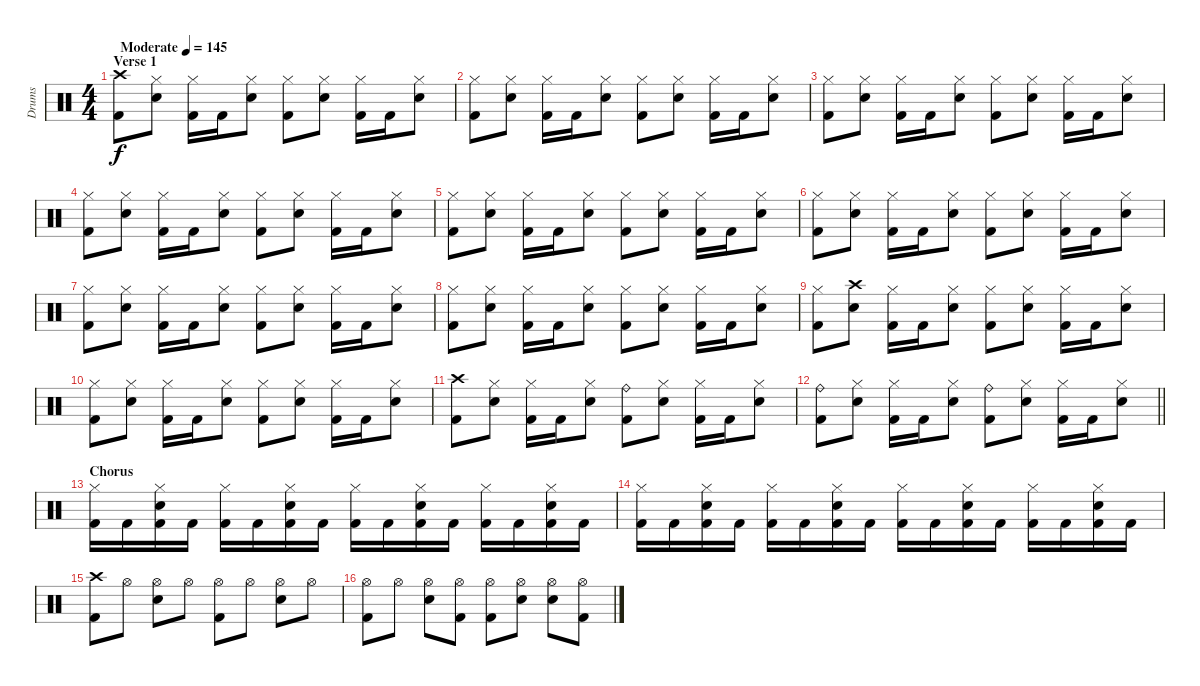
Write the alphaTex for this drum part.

\track ("Drums" "Drums") {instrument percussion}
\staff {score}
\articulation defaults
\ts (4 4)
\section ("" "Verse 1")
\tempo (145 "Moderate")
\clef neutral
\ks c
("Crash high (hit)" "Kick (hit) 2").8{dy f} ("Hi-Hat (closed)" "Snare (hit) 2").8 ("Hi-Hat (closed)" "Kick (hit) 2").16 "Kick (hit) 2".16 ("Hi-Hat (closed)" "Snare (hit) 2").8 ("Hi-Hat (closed)" "Kick (hit) 2").8 ("Hi-Hat (closed)" "Snare (hit) 2").8 ("Hi-Hat (closed)" "Kick (hit) 2").16 "Kick (hit) 2".16 ("Hi-Hat (closed)" "Snare (hit) 2").8 |
("Hi-Hat (closed)" "Kick (hit) 2").8 ("Hi-Hat (closed)" "Snare (hit) 2").8 ("Hi-Hat (closed)" "Kick (hit) 2").16 "Kick (hit) 2".16 ("Hi-Hat (closed)" "Snare (hit) 2").8 ("Hi-Hat (closed)" "Kick (hit) 2").8 ("Hi-Hat (closed)" "Snare (hit) 2").8 ("Hi-Hat (closed)" "Kick (hit) 2").16 "Kick (hit) 2".16 ("Hi-Hat (closed)" "Snare (hit) 2").8 |
("Hi-Hat (closed)" "Kick (hit) 2").8 ("Hi-Hat (closed)" "Snare (hit) 2").8 ("Hi-Hat (closed)" "Kick (hit) 2").16 "Kick (hit) 2".16 ("Hi-Hat (closed)" "Snare (hit) 2").8 ("Hi-Hat (closed)" "Kick (hit) 2").8 ("Hi-Hat (closed)" "Snare (hit) 2").8 ("Hi-Hat (closed)" "Kick (hit) 2").16 "Kick (hit) 2".16 ("Hi-Hat (closed)" "Snare (hit) 2").8 |
("Hi-Hat (closed)" "Kick (hit) 2").8 ("Hi-Hat (closed)" "Snare (hit) 2").8 ("Hi-Hat (closed)" "Kick (hit) 2").16 "Kick (hit) 2".16 ("Hi-Hat (closed)" "Snare (hit) 2").8 ("Hi-Hat (closed)" "Kick (hit) 2").8 ("Hi-Hat (closed)" "Snare (hit) 2").8 ("Hi-Hat (closed)" "Kick (hit) 2").16 "Kick (hit) 2".16 ("Hi-Hat (closed)" "Snare (hit) 2").8 |
("Hi-Hat (closed)" "Kick (hit) 2").8 ("Hi-Hat (closed)" "Snare (hit) 2").8 ("Hi-Hat (closed)" "Kick (hit) 2").16 "Kick (hit) 2".16 ("Hi-Hat (closed)" "Snare (hit) 2").8 ("Hi-Hat (closed)" "Kick (hit) 2").8 ("Hi-Hat (closed)" "Snare (hit) 2").8 ("Hi-Hat (closed)" "Kick (hit) 2").16 "Kick (hit) 2".16 ("Hi-Hat (closed)" "Snare (hit) 2").8 |
("Hi-Hat (closed)" "Kick (hit) 2").8 ("Hi-Hat (closed)" "Snare (hit) 2").8 ("Hi-Hat (closed)" "Kick (hit) 2").16 "Kick (hit) 2".16 ("Hi-Hat (closed)" "Snare (hit) 2").8 ("Hi-Hat (closed)" "Kick (hit) 2").8 ("Hi-Hat (closed)" "Snare (hit) 2").8 ("Hi-Hat (closed)" "Kick (hit) 2").16 "Kick (hit) 2".16 ("Hi-Hat (closed)" "Snare (hit) 2").8 |
("Hi-Hat (closed)" "Kick (hit) 2").8 ("Hi-Hat (closed)" "Snare (hit) 2").8 ("Hi-Hat (closed)" "Kick (hit) 2").16 "Kick (hit) 2".16 ("Hi-Hat (closed)" "Snare (hit) 2").8 ("Hi-Hat (closed)" "Kick (hit) 2").8 ("Hi-Hat (closed)" "Snare (hit) 2").8 ("Hi-Hat (closed)" "Kick (hit) 2").16 "Kick (hit) 2".16 ("Hi-Hat (closed)" "Snare (hit) 2").8 |
("Hi-Hat (closed)" "Kick (hit) 2").8 ("Hi-Hat (closed)" "Snare (hit) 2").8 ("Hi-Hat (closed)" "Kick (hit) 2").16 "Kick (hit) 2".16 ("Hi-Hat (closed)" "Snare (hit) 2").8 ("Hi-Hat (closed)" "Kick (hit) 2").8 ("Hi-Hat (closed)" "Snare (hit) 2").8 ("Hi-Hat (closed)" "Kick (hit) 2").16 "Kick (hit) 2".16 ("Hi-Hat (closed)" "Snare (hit) 2").8 |
("Hi-Hat (closed)" "Kick (hit) 2").8 ("Crash high (hit)" "Snare (hit) 2").8 ("Hi-Hat (closed)" "Kick (hit) 2").16 "Kick (hit) 2".16 ("Hi-Hat (closed)" "Snare (hit) 2").8 ("Hi-Hat (closed)" "Kick (hit) 2").8 ("Hi-Hat (closed)" "Snare (hit) 2").8 ("Hi-Hat (closed)" "Kick (hit) 2").16 "Kick (hit) 2".16 ("Hi-Hat (closed)" "Snare (hit) 2").8 |
("Hi-Hat (closed)" "Kick (hit) 2").8 ("Hi-Hat (closed)" "Snare (hit) 2").8 ("Hi-Hat (closed)" "Kick (hit) 2").16 "Kick (hit) 2".16 ("Hi-Hat (closed)" "Snare (hit) 2").8 ("Hi-Hat (closed)" "Kick (hit) 2").8 ("Hi-Hat (closed)" "Snare (hit) 2").8 ("Hi-Hat (closed)" "Kick (hit) 2").16 "Kick (hit) 2".16 ("Hi-Hat (closed)" "Snare (hit) 2").8 |
("Crash high (hit)" "Kick (hit) 2").8 ("Hi-Hat (closed)" "Snare (hit) 2").8 ("Hi-Hat (closed)" "Kick (hit) 2").16 "Kick (hit) 2".16 ("Hi-Hat (closed)" "Snare (hit) 2").8 ("Ride (bell)" "Kick (hit) 2").8 ("Hi-Hat (closed)" "Snare (hit) 2").8 ("Hi-Hat (closed)" "Kick (hit) 2").16 "Kick (hit) 2".16 ("Hi-Hat (closed)" "Snare (hit) 2").8 |
\barLineRight lightlight
("Ride (bell)" "Kick (hit) 2").8 ("Hi-Hat (closed)" "Snare (hit) 2").8 ("Hi-Hat (closed)" "Kick (hit) 2").16 "Kick (hit) 2".16 ("Hi-Hat (closed)" "Snare (hit) 2").8 ("Ride (bell)" "Kick (hit) 2").8 ("Hi-Hat (closed)" "Snare (hit) 2").8 ("Hi-Hat (closed)" "Kick (hit) 2").16 "Kick (hit) 2".16 ("Hi-Hat (closed)" "Snare (hit) 2").8 |
\section ("" "Chorus")
("Hi-Hat (closed)" "Kick (hit) 2").16 "Kick (hit) 2".16 ("Hi-Hat (closed)" "Kick (hit) 2" "Snare (hit) 2").16 "Kick (hit) 2".16 ("Hi-Hat (closed)" "Kick (hit) 2").16 "Kick (hit) 2".16 ("Hi-Hat (closed)" "Kick (hit) 2" "Snare (hit) 2").16 "Kick (hit) 2".16 ("Hi-Hat (closed)" "Kick (hit) 2").16 "Kick (hit) 2".16 ("Hi-Hat (closed)" "Kick (hit) 2" "Snare (hit) 2").16 "Kick (hit) 2".16 ("Hi-Hat (closed)" "Kick (hit) 2").16 "Kick (hit) 2".16 ("Hi-Hat (closed)" "Kick (hit) 2" "Snare (hit) 2").16 "Kick (hit) 2".16 |
("Hi-Hat (closed)" "Kick (hit) 2").16 "Kick (hit) 2".16 ("Hi-Hat (closed)" "Kick (hit) 2" "Snare (hit) 2").16 "Kick (hit) 2".16 ("Hi-Hat (closed)" "Kick (hit) 2").16 "Kick (hit) 2".16 ("Hi-Hat (closed)" "Kick (hit) 2" "Snare (hit) 2").16 "Kick (hit) 2".16 ("Hi-Hat (closed)" "Kick (hit) 2").16 "Kick (hit) 2".16 ("Hi-Hat (closed)" "Kick (hit) 2" "Snare (hit) 2").16 "Kick (hit) 2".16 ("Hi-Hat (closed)" "Kick (hit) 2").16 "Kick (hit) 2".16 ("Hi-Hat (closed)" "Kick (hit) 2" "Snare (hit) 2").16 "Kick (hit) 2".16 |
("Crash high (hit)" "Kick (hit) 2").8 "Hi-Hat (open)".8 ("Hi-Hat (open)" "Snare (hit) 2").8 "Hi-Hat (open)".8 ("Hi-Hat (open)" "Kick (hit) 2").8 "Hi-Hat (open)".8 ("Hi-Hat (open)" "Snare (hit) 2").8 "Hi-Hat (open)".8 |
("Hi-Hat (open)" "Kick (hit) 2").8 "Hi-Hat (open)".8 ("Hi-Hat (open)" "Snare (hit) 2").8 ("Hi-Hat (open)" "Kick (hit) 2").8 ("Hi-Hat (open)" "Kick (hit) 2").8 ("Hi-Hat (open)" "Snare (hit) 2").8 ("Hi-Hat (open)" "Snare (hit) 2").8 ("Hi-Hat (open)" "Kick (hit) 2").8
